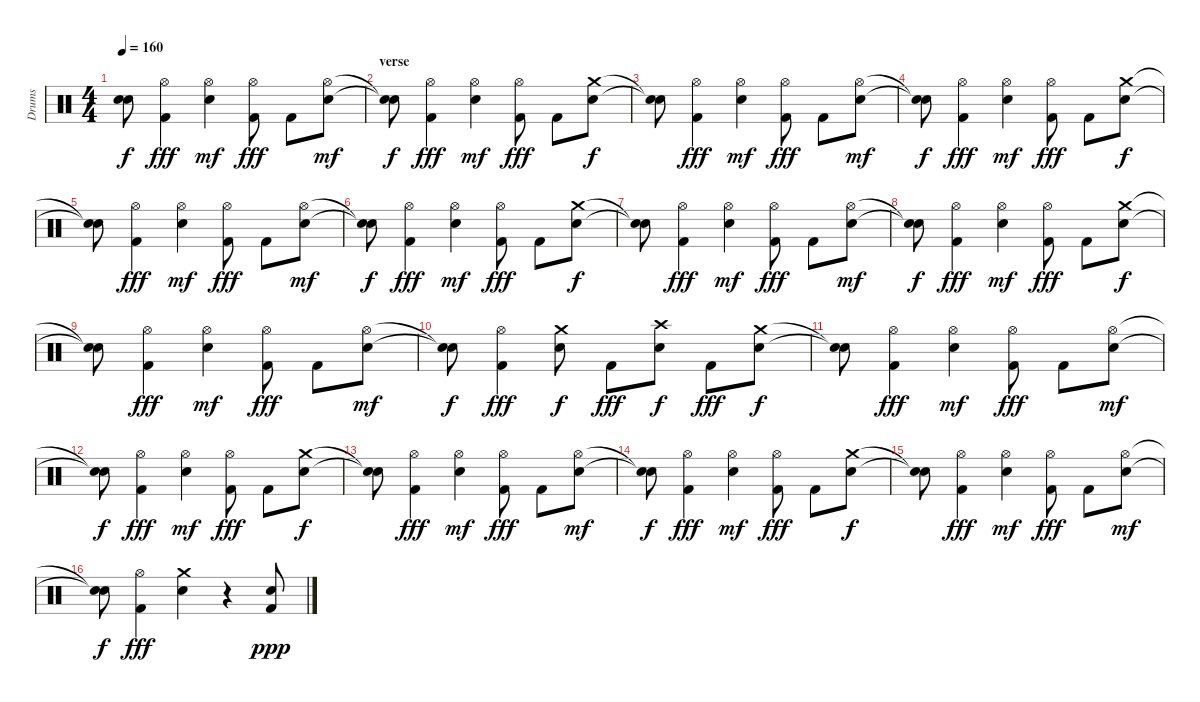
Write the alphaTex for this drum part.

\track ("Drums" "Drums") {instrument percussion}
\staff {score}
\articulation defaults
\ts (4 4)
\tempo 160
\clef neutral
\ks c
("Snare (hit)"{t} "Snare (hit)"{t}).8{dy f} ("Hi-Hat (open)" "Kick (hit) 2").4{dy fff} ("Hi-Hat (open)" "Electric Snare (hit)").4{dy mf} ("Hi-Hat (open)" "Kick (hit) 2").8{dy fff} "Kick (hit) 2".8 ("Hi-Hat (open)" "Electric Snare (hit)").8{dy mf} |
\section ("" "verse")
("Snare (hit)"{t} "Snare (hit)"{t}).8{dy f} ("Hi-Hat (open)" "Kick (hit) 2").4{dy fff} ("Hi-Hat (open)" "Electric Snare (hit)").4{dy mf} ("Hi-Hat (open)" "Kick (hit) 2").8{dy fff} "Kick (hit) 2".8 ("Crash medium (hit)" "Electric Snare (hit)").8{dy f} |
("Snare (hit)"{t} "Snare (hit)"{t}).8 ("Hi-Hat (open)" "Kick (hit) 2").4{dy fff} ("Hi-Hat (open)" "Electric Snare (hit)").4{dy mf} ("Hi-Hat (open)" "Kick (hit) 2").8{dy fff} "Kick (hit) 2".8 ("Hi-Hat (open)" "Electric Snare (hit)").8{dy mf} |
("Snare (hit)"{t} "Snare (hit)"{t}).8{dy f} ("Hi-Hat (open)" "Kick (hit) 2").4{dy fff} ("Hi-Hat (open)" "Electric Snare (hit)").4{dy mf} ("Hi-Hat (open)" "Kick (hit) 2").8{dy fff} "Kick (hit) 2".8 ("Crash medium (hit)" "Electric Snare (hit)").8{dy f} |
("Snare (hit)"{t} "Snare (hit)"{t}).8 ("Hi-Hat (open)" "Kick (hit) 2").4{dy fff} ("Hi-Hat (open)" "Electric Snare (hit)").4{dy mf} ("Hi-Hat (open)" "Kick (hit) 2").8{dy fff} "Kick (hit) 2".8 ("Hi-Hat (open)" "Electric Snare (hit)").8{dy mf} |
("Snare (hit)"{t} "Snare (hit)"{t}).8{dy f} ("Hi-Hat (open)" "Kick (hit) 2").4{dy fff} ("Hi-Hat (open)" "Electric Snare (hit)").4{dy mf} ("Hi-Hat (open)" "Kick (hit) 2").8{dy fff} "Kick (hit) 2".8 ("Crash medium (hit)" "Electric Snare (hit)").8{dy f} |
("Snare (hit)"{t} "Snare (hit)"{t}).8 ("Hi-Hat (open)" "Kick (hit) 2").4{dy fff} ("Hi-Hat (open)" "Electric Snare (hit)").4{dy mf} ("Hi-Hat (open)" "Kick (hit) 2").8{dy fff} "Kick (hit) 2".8 ("Hi-Hat (open)" "Electric Snare (hit)").8{dy mf} |
("Snare (hit)"{t} "Snare (hit)"{t}).8{dy f} ("Hi-Hat (open)" "Kick (hit) 2").4{dy fff} ("Hi-Hat (open)" "Electric Snare (hit)").4{dy mf} ("Hi-Hat (open)" "Kick (hit) 2").8{dy fff} "Kick (hit) 2".8 ("Crash medium (hit)" "Electric Snare (hit)").8{dy f} |
("Snare (hit)"{t} "Snare (hit)"{t}).8 ("Hi-Hat (open)" "Kick (hit) 2").4{dy fff} ("Hi-Hat (open)" "Electric Snare (hit)").4{dy mf} ("Hi-Hat (open)" "Kick (hit) 2").8{dy fff} "Kick (hit) 2".8 ("Hi-Hat (open)" "Electric Snare (hit)").8{dy mf} |
("Snare (hit)"{t} "Snare (hit)"{t}).8{dy f} ("Hi-Hat (open)" "Kick (hit) 2").4{dy fff} ("Crash medium (hit)" "Electric Snare (hit)").8{dy f} "Kick (hit) 2".8{dy fff} ("Crash high (hit)" "Electric Snare (hit)").8{dy f} "Kick (hit) 2".8{dy fff} ("Crash medium (hit)" "Electric Snare (hit)").8{dy f} |
("Snare (hit)"{t} "Snare (hit)"{t}).8 ("Hi-Hat (open)" "Kick (hit) 2").4{dy fff} ("Hi-Hat (open)" "Electric Snare (hit)").4{dy mf} ("Hi-Hat (open)" "Kick (hit) 2").8{dy fff} "Kick (hit) 2".8 ("Hi-Hat (open)" "Electric Snare (hit)").8{dy mf} |
("Snare (hit)"{t} "Snare (hit)"{t}).8{dy f} ("Hi-Hat (open)" "Kick (hit) 2").4{dy fff} ("Hi-Hat (open)" "Electric Snare (hit)").4{dy mf} ("Hi-Hat (open)" "Kick (hit) 2").8{dy fff} "Kick (hit) 2".8 ("Crash medium (hit)" "Electric Snare (hit)").8{dy f} |
("Snare (hit)"{t} "Snare (hit)"{t}).8 ("Hi-Hat (open)" "Kick (hit) 2").4{dy fff} ("Hi-Hat (open)" "Electric Snare (hit)").4{dy mf} ("Hi-Hat (open)" "Kick (hit) 2").8{dy fff} "Kick (hit) 2".8 ("Hi-Hat (open)" "Electric Snare (hit)").8{dy mf} |
("Snare (hit)"{t} "Snare (hit)"{t}).8{dy f} ("Hi-Hat (open)" "Kick (hit) 2").4{dy fff} ("Hi-Hat (open)" "Electric Snare (hit)").4{dy mf} ("Hi-Hat (open)" "Kick (hit) 2").8{dy fff} "Kick (hit) 2".8 ("Crash medium (hit)" "Electric Snare (hit)").8{dy f} |
("Snare (hit)"{t} "Snare (hit)"{t}).8 ("Hi-Hat (open)" "Kick (hit) 2").4{dy fff} ("Hi-Hat (open)" "Electric Snare (hit)").4{dy mf} ("Hi-Hat (open)" "Kick (hit) 2").8{dy fff} "Kick (hit) 2".8 ("Hi-Hat (open)" "Electric Snare (hit)").8{dy mf} |
("Snare (hit)"{t} "Snare (hit)"{t}).8{dy f} ("Hi-Hat (open)" "Kick (hit) 2").4{dy fff} ("Crash medium (hit)" "Electric Snare (hit)").4 r.4 ("Kick (hit) 2" "Electric Snare (hit)").8{dy ppp}
